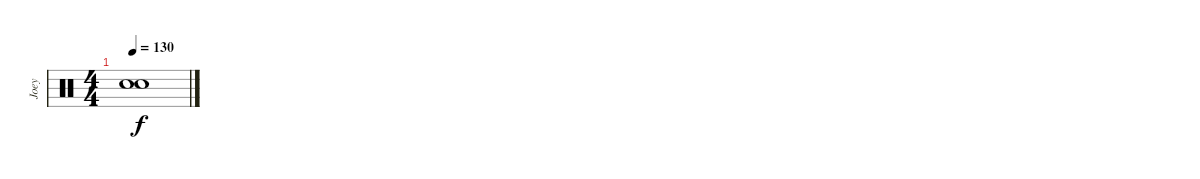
\track ("Joey" "Joey") {instrument percussion}
\staff {score}
\articulation defaults
\ts (4 4)
\tempo 130
\clef neutral
\ks c
("Electric Snare (hit)" "Electric Snare (hit)").1{bd 60 dy f}
